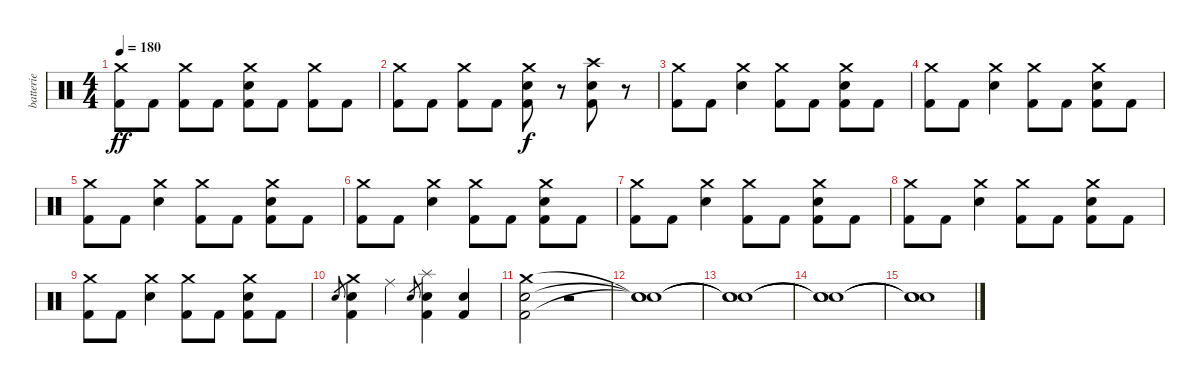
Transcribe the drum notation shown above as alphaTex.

\track ("batterie" "batterie") {instrument percussion}
\staff {score}
\articulation defaults
\ts (4 4)
\tempo 180
\clef neutral
\ks c
("Crash medium (hit)" "Kick (hit) 2").8{dy ff} "Kick (hit) 2".8 ("Crash medium (hit)" "Kick (hit) 2").8 "Kick (hit) 2".8 ("Crash medium (hit)" "Electric Snare (hit)" "Kick (hit) 2").8 "Kick (hit) 2".8 ("Crash medium (hit)" "Kick (hit) 2").8 "Kick (hit) 2".8 |
("Crash medium (hit)" "Kick (hit) 2").8 "Kick (hit) 2".8 ("Crash medium (hit)" "Kick (hit) 2").8 "Kick (hit) 2".8 ("Crash medium (hit)" "Electric Snare (hit)" "Kick (hit) 2").8{dy f} r.8 ("Crash high (hit)" "Electric Snare (hit)" "Kick (hit) 2").8 r.8 |
("Crash medium (hit)" "Kick (hit) 2").8 "Kick (hit) 2".8 ("Crash medium (hit)" "Electric Snare (hit)").4 ("Crash medium (hit)" "Kick (hit) 2").8 "Kick (hit) 2".8 ("Crash medium (hit)" "Electric Snare (hit)" "Kick (hit) 2").8 "Kick (hit) 2".8 |
("Crash medium (hit)" "Kick (hit) 2").8 "Kick (hit) 2".8 ("Crash medium (hit)" "Electric Snare (hit)").4 ("Crash medium (hit)" "Kick (hit) 2").8 "Kick (hit) 2".8 ("Crash medium (hit)" "Electric Snare (hit)" "Kick (hit) 2").8 "Kick (hit) 2".8 |
("Crash medium (hit)" "Kick (hit) 2").8 "Kick (hit) 2".8 ("Crash medium (hit)" "Electric Snare (hit)").4 ("Crash medium (hit)" "Kick (hit) 2").8 "Kick (hit) 2".8 ("Crash medium (hit)" "Electric Snare (hit)" "Kick (hit) 2").8 "Kick (hit) 2".8 |
("Crash medium (hit)" "Kick (hit) 2").8 "Kick (hit) 2".8 ("Crash medium (hit)" "Electric Snare (hit)").4 ("Crash medium (hit)" "Kick (hit) 2").8 "Kick (hit) 2".8 ("Crash medium (hit)" "Electric Snare (hit)" "Kick (hit) 2").8 "Kick (hit) 2".8 |
("Crash medium (hit)" "Kick (hit) 2").8 "Kick (hit) 2".8 ("Crash medium (hit)" "Electric Snare (hit)").4 ("Crash medium (hit)" "Kick (hit) 2").8 "Kick (hit) 2".8 ("Crash medium (hit)" "Electric Snare (hit)" "Kick (hit) 2").8 "Kick (hit) 2".8 |
("Crash medium (hit)" "Kick (hit) 2").8 "Kick (hit) 2".8 ("Crash medium (hit)" "Electric Snare (hit)").4 ("Crash medium (hit)" "Kick (hit) 2").8 "Kick (hit) 2".8 ("Crash medium (hit)" "Electric Snare (hit)" "Kick (hit) 2").8 "Kick (hit) 2".8 |
("Crash medium (hit)" "Kick (hit) 2").8 "Kick (hit) 2".8 ("Crash medium (hit)" "Electric Snare (hit)").4 ("Crash medium (hit)" "Kick (hit) 2").8 "Kick (hit) 2".8 ("Crash medium (hit)" "Electric Snare (hit)" "Kick (hit) 2").8 "Kick (hit) 2".8 |
"Electric Snare (hit)".8{gr} ("Crash medium (hit)" "Electric Snare (hit)" "Kick (hit) 2").4 "Ride (middle)".4 "Electric Snare (hit)".8{gr} ("Splash (hit)" "Electric Snare (hit)" "Kick (hit) 2").4 ("Electric Snare (hit)" "Kick (hit) 2").4 |
("Crash medium (hit)" "Electric Snare (hit)" "Kick (hit) 2").2{volume 4} r.2 |
("Snare (hit)"{t} "Snare (hit)"{t} "Snare (hit)"{t}).1 |
("Snare (hit)"{t} "Snare (hit)"{t} "Snare (hit)"{t}).1 |
("Snare (hit)"{t} "Snare (hit)"{t} "Snare (hit)"{t}).1 |
("Snare (hit)"{t} "Snare (hit)"{t} "Snare (hit)"{t}).1
